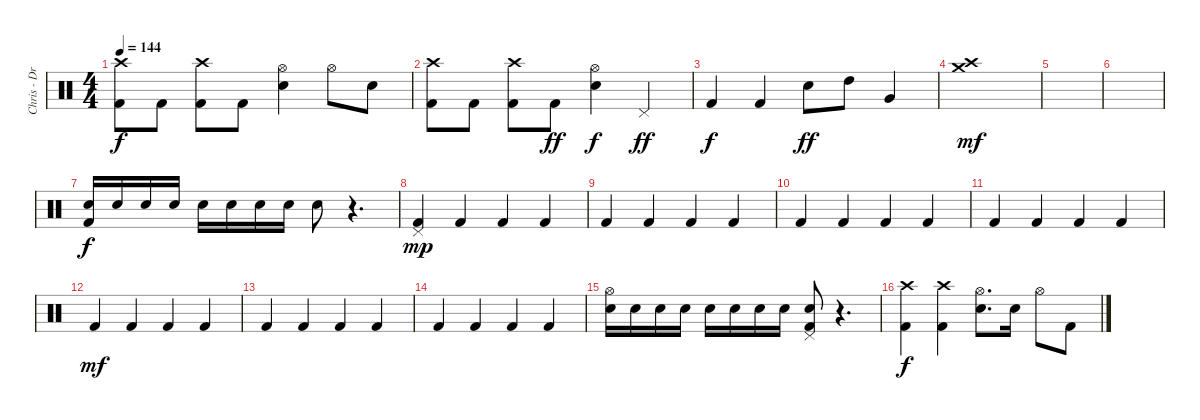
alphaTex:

\track ("Chris - Drums" "Chris - Dr") {instrument percussion}
\staff {score}
\articulation defaults
\ts (4 4)
\tempo 144
\clef neutral
\ks c
("Crash high (hit)" "Kick (hit) 2").8{dy f} "Kick (hit) 2".8 ("Crash high (hit)" "Kick (hit) 2").8 "Kick (hit) 2".8 ("Hi-Hat (open)" "Electric Snare (hit)").4 "Hi-Hat (open)".8 "Electric Snare (hit)".8 |
("Crash high (hit)" "Kick (hit) 2").8 "Kick (hit) 2".8 ("Crash high (hit)" "Kick (hit) 2").8 "Kick (hit) 2".8{dy ff} ("Hi-Hat (open)" "Electric Snare (hit)").4{dy f} "Pedal Hi-Hat (hit)".4{dy ff} |
"Kick (hit) 2".4{dy f} "Kick (hit) 2".4 "Electric Snare (hit)".8{dy ff} "High Tom (hit)".8 "Very Low Tom (hit)".4 |
("Crash high (hit)" "Crash medium (hit)").1{dy mf} |
|
|
("Electric Snare (hit)" "Kick (hit) 2").16{dy f} "Electric Snare (hit)".16 "Electric Snare (hit)".16 "Electric Snare (hit)".16 "Electric Snare (hit)".16 "Electric Snare (hit)".16 "Electric Snare (hit)".16 "Electric Snare (hit)".16 "Electric Snare (hit)".8 r.4{d} |
("Pedal Hi-Hat (hit)" "Kick (hit) 2").4{dy mp} "Kick (hit) 2".4 "Kick (hit) 2".4 "Kick (hit) 2".4 |
"Kick (hit) 2".4 "Kick (hit) 2".4 "Kick (hit) 2".4 "Kick (hit) 2".4 |
"Kick (hit) 2".4 "Kick (hit) 2".4 "Kick (hit) 2".4 "Kick (hit) 2".4 |
"Kick (hit) 2".4 "Kick (hit) 2".4 "Kick (hit) 2".4 "Kick (hit) 2".4 |
"Kick (hit) 2".4{dy mf} "Kick (hit) 2".4 "Kick (hit) 2".4 "Kick (hit) 2".4 |
"Kick (hit) 2".4 "Kick (hit) 2".4 "Kick (hit) 2".4 "Kick (hit) 2".4 |
"Kick (hit) 2".4 "Kick (hit) 2".4 "Kick (hit) 2".4 "Kick (hit) 2".4 |
("Hi-Hat (open)" "Electric Snare (hit)").16 "Electric Snare (hit)".16 "Electric Snare (hit)".16 "Electric Snare (hit)".16 "Electric Snare (hit)".16 "Electric Snare (hit)".16 "Electric Snare (hit)".16 "Electric Snare (hit)".16 ("Pedal Hi-Hat (hit)" "Electric Snare (hit)" "Kick (hit) 2").8 r.4{d} |
("Crash high (hit)" "Kick (hit) 2").4{dy f} ("Crash high (hit)" "Kick (hit) 2").4 ("Hi-Hat (open)" "Electric Snare (hit)").8{d} "Electric Snare (hit)".16 "Hi-Hat (open)".8 "Kick (hit) 2".8
